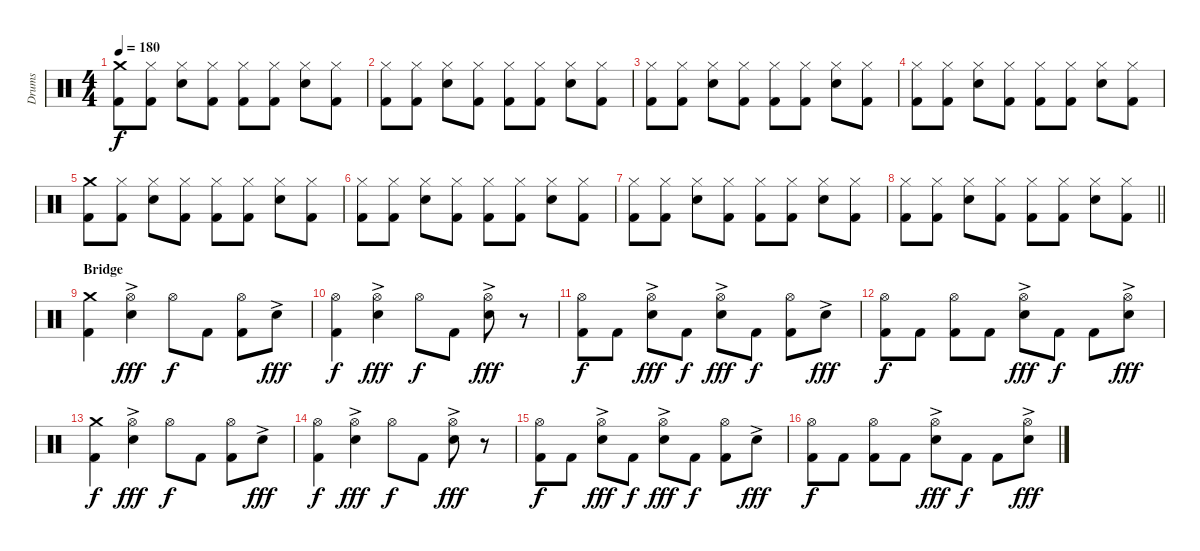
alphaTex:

\track ("Drums" "Drums") {instrument percussion}
\staff {score}
\articulation defaults
\ts (4 4)
\tempo 180
\clef neutral
\ks c
("Crash medium (hit)" "Kick (hit) 2").8{dy f} ("Hi-Hat (closed)" "Kick (hit) 2").8 ("Hi-Hat (closed)" "Electric Snare (hit)").8 ("Hi-Hat (closed)" "Kick (hit) 2").8 ("Hi-Hat (closed)" "Kick (hit) 2").8 ("Hi-Hat (closed)" "Kick (hit) 2").8 ("Hi-Hat (closed)" "Electric Snare (hit)").8 ("Hi-Hat (closed)" "Kick (hit) 2").8 |
("Hi-Hat (closed)" "Kick (hit) 2").8 ("Hi-Hat (closed)" "Kick (hit) 2").8 ("Hi-Hat (closed)" "Electric Snare (hit)").8 ("Hi-Hat (closed)" "Kick (hit) 2").8 ("Hi-Hat (closed)" "Kick (hit) 2").8 ("Hi-Hat (closed)" "Kick (hit) 2").8 ("Hi-Hat (closed)" "Electric Snare (hit)").8 ("Hi-Hat (closed)" "Kick (hit) 2").8 |
("Hi-Hat (closed)" "Kick (hit) 2").8 ("Hi-Hat (closed)" "Kick (hit) 2").8 ("Hi-Hat (closed)" "Electric Snare (hit)").8 ("Hi-Hat (closed)" "Kick (hit) 2").8 ("Hi-Hat (closed)" "Kick (hit) 2").8 ("Hi-Hat (closed)" "Kick (hit) 2").8 ("Hi-Hat (closed)" "Electric Snare (hit)").8 ("Hi-Hat (closed)" "Kick (hit) 2").8 |
("Hi-Hat (closed)" "Kick (hit) 2").8 ("Hi-Hat (closed)" "Kick (hit) 2").8 ("Hi-Hat (closed)" "Electric Snare (hit)").8 ("Hi-Hat (closed)" "Kick (hit) 2").8 ("Hi-Hat (closed)" "Kick (hit) 2").8 ("Hi-Hat (closed)" "Kick (hit) 2").8 ("Hi-Hat (closed)" "Electric Snare (hit)").8 ("Hi-Hat (closed)" "Kick (hit) 2").8 |
("Crash medium (hit)" "Kick (hit) 2").8 ("Hi-Hat (closed)" "Kick (hit) 2").8 ("Hi-Hat (closed)" "Electric Snare (hit)").8 ("Hi-Hat (closed)" "Kick (hit) 2").8 ("Hi-Hat (closed)" "Kick (hit) 2").8 ("Hi-Hat (closed)" "Kick (hit) 2").8 ("Hi-Hat (closed)" "Electric Snare (hit)").8 ("Hi-Hat (closed)" "Kick (hit) 2").8 |
("Hi-Hat (closed)" "Kick (hit) 2").8 ("Hi-Hat (closed)" "Kick (hit) 2").8 ("Hi-Hat (closed)" "Electric Snare (hit)").8 ("Hi-Hat (closed)" "Kick (hit) 2").8 ("Hi-Hat (closed)" "Kick (hit) 2").8 ("Hi-Hat (closed)" "Kick (hit) 2").8 ("Hi-Hat (closed)" "Electric Snare (hit)").8 ("Hi-Hat (closed)" "Kick (hit) 2").8 |
("Hi-Hat (closed)" "Kick (hit) 2").8 ("Hi-Hat (closed)" "Kick (hit) 2").8 ("Hi-Hat (closed)" "Electric Snare (hit)").8 ("Hi-Hat (closed)" "Kick (hit) 2").8 ("Hi-Hat (closed)" "Kick (hit) 2").8 ("Hi-Hat (closed)" "Kick (hit) 2").8 ("Hi-Hat (closed)" "Electric Snare (hit)").8 ("Hi-Hat (closed)" "Kick (hit) 2").8 |
\barLineRight lightlight
("Hi-Hat (closed)" "Kick (hit) 2").8 ("Hi-Hat (closed)" "Kick (hit) 2").8 ("Hi-Hat (closed)" "Electric Snare (hit)").8 ("Hi-Hat (closed)" "Kick (hit) 2").8 ("Hi-Hat (closed)" "Kick (hit) 2").8 ("Hi-Hat (closed)" "Kick (hit) 2").8 ("Hi-Hat (closed)" "Electric Snare (hit)").8 ("Hi-Hat (closed)" "Kick (hit) 2").8 |
\section ("" "Bridge")
("Crash medium (hit)" "Kick (hit) 2").4 ("Hi-Hat (open)" "Electric Snare (hit)"{ac}).4{dy fff} "Hi-Hat (open)".8{dy f} "Kick (hit) 2".8 ("Hi-Hat (open)" "Kick (hit) 2").8 "Electric Snare (hit)"{ac}.8{dy fff} |
("Hi-Hat (open)" "Kick (hit) 2").4{dy f} ("Hi-Hat (open)" "Electric Snare (hit)"{ac}).4{dy fff} "Hi-Hat (open)".8{dy f} "Kick (hit) 2".8 ("Hi-Hat (open)" "Electric Snare (hit)"{ac}).8{dy fff} r.8 |
("Hi-Hat (open)" "Kick (hit) 2").8{dy f} "Kick (hit) 2".8 ("Hi-Hat (open)" "Electric Snare (hit)"{ac}).8{dy fff} "Kick (hit) 2".8{dy f} ("Hi-Hat (open)" "Electric Snare (hit)"{ac}).8{dy fff} "Kick (hit) 2".8{dy f} ("Hi-Hat (open)" "Kick (hit) 2").8 "Electric Snare (hit)"{ac}.8{dy fff} |
("Hi-Hat (open)" "Kick (hit) 2").8{dy f} "Kick (hit) 2".8 ("Hi-Hat (open)" "Kick (hit) 2").8 "Kick (hit) 2".8 ("Hi-Hat (open)" "Electric Snare (hit)"{ac}).8{dy fff} "Kick (hit) 2".8{dy f} "Kick (hit) 2".8 ("Hi-Hat (open)" "Electric Snare (hit)"{ac}).8{dy fff} |
("Crash medium (hit)" "Kick (hit) 2").4{dy f} ("Hi-Hat (open)" "Electric Snare (hit)"{ac}).4{dy fff} "Hi-Hat (open)".8{dy f} "Kick (hit) 2".8 ("Hi-Hat (open)" "Kick (hit) 2").8 "Electric Snare (hit)"{ac}.8{dy fff} |
("Hi-Hat (open)" "Kick (hit) 2").4{dy f} ("Hi-Hat (open)" "Electric Snare (hit)"{ac}).4{dy fff} "Hi-Hat (open)".8{dy f} "Kick (hit) 2".8 ("Hi-Hat (open)" "Electric Snare (hit)"{ac}).8{dy fff} r.8 |
("Hi-Hat (open)" "Kick (hit) 2").8{dy f} "Kick (hit) 2".8 ("Hi-Hat (open)" "Electric Snare (hit)"{ac}).8{dy fff} "Kick (hit) 2".8{dy f} ("Hi-Hat (open)" "Electric Snare (hit)"{ac}).8{dy fff} "Kick (hit) 2".8{dy f} ("Hi-Hat (open)" "Kick (hit) 2").8 "Electric Snare (hit)"{ac}.8{dy fff} |
("Hi-Hat (open)" "Kick (hit) 2").8{dy f} "Kick (hit) 2".8 ("Hi-Hat (open)" "Kick (hit) 2").8 "Kick (hit) 2".8 ("Hi-Hat (open)" "Electric Snare (hit)"{ac}).8{dy fff} "Kick (hit) 2".8{dy f} "Kick (hit) 2".8 ("Hi-Hat (open)" "Electric Snare (hit)"{ac}).8{dy fff}
